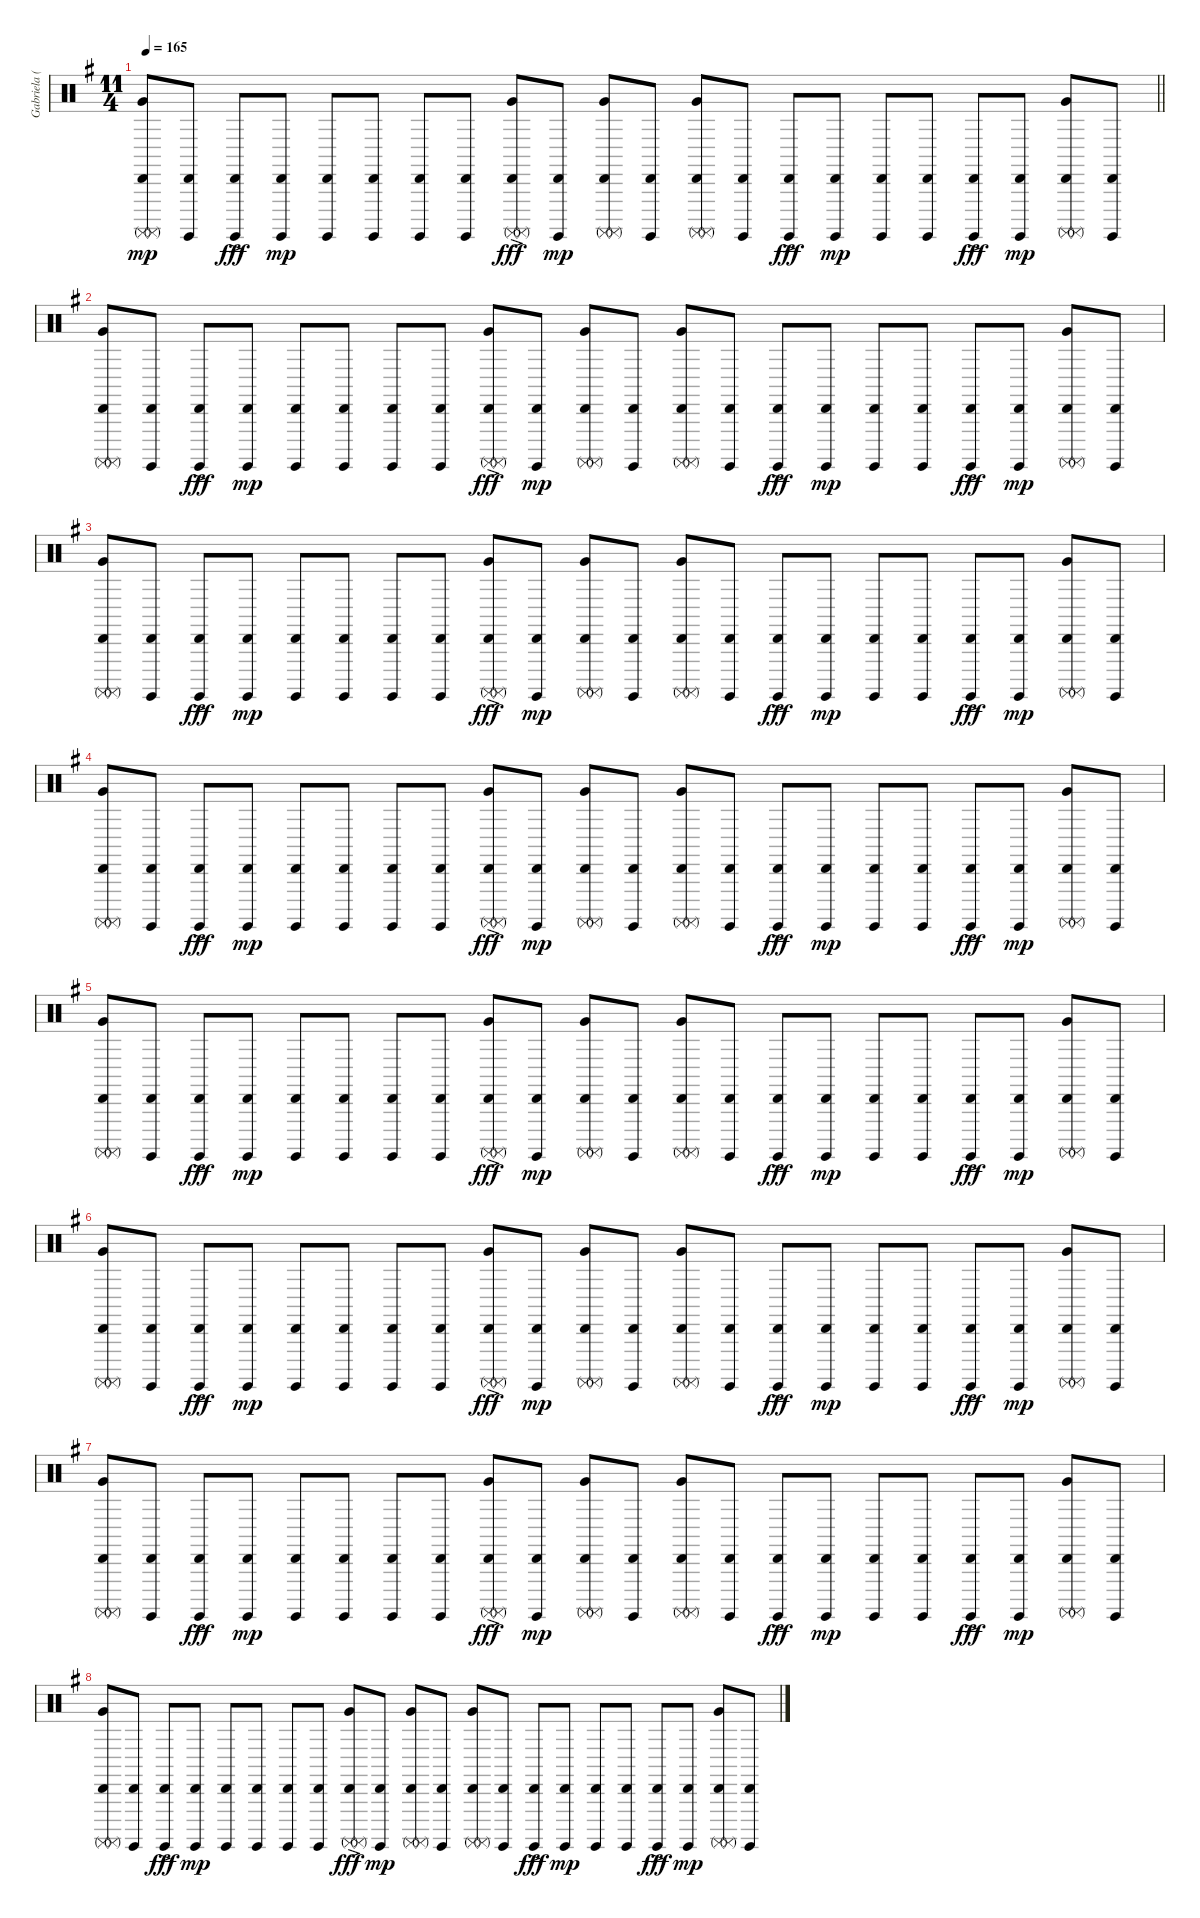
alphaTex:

\track ("Gabriela (Guitar Percussion)" "Gabriela (") {instrument percussion}
\staff {score}
\articulation defaults
\ts (11 4)
\tempo 165
\clef neutral
\barLineRight lightlight
\ks g
("Very Low Tom (hit)" "Surdo (mute)" "Surdo (mute)" "Cabasa (hit)").8{dy mp} ("Surdo (hit)" "Cabasa (hit)").8 ("Surdo (hit)" "Cabasa (hit)"{ac}).8{dy fff} ("Surdo (hit)" "Cabasa (hit)").8{dy mp} ("Surdo (hit)" "Cabasa (hit)").8 ("Surdo (hit)" "Cabasa (hit)").8 ("Surdo (hit)" "Cabasa (hit)").8 ("Surdo (hit)" "Cabasa (hit)").8 ("Very Low Tom (hit)" "Surdo (mute)" "Surdo (mute)" "Cabasa (hit)"{ac}).8{dy fff} ("Surdo (hit)" "Cabasa (hit)").8{dy mp} ("Very Low Tom (hit)" "Surdo (mute)" "Surdo (mute)" "Cabasa (hit)").8 ("Surdo (hit)" "Cabasa (hit)").8 ("Very Low Tom (hit)" "Surdo (mute)" "Surdo (mute)" "Cabasa (hit)").8 ("Surdo (hit)" "Cabasa (hit)").8 ("Surdo (hit)" "Cabasa (hit)"{ac}).8{dy fff} ("Surdo (hit)" "Cabasa (hit)").8{dy mp} ("Surdo (hit)" "Cabasa (hit)").8 ("Surdo (hit)" "Cabasa (hit)").8 ("Surdo (hit)" "Cabasa (hit)"{ac}).8{dy fff} ("Surdo (hit)" "Cabasa (hit)").8{dy mp} ("Very Low Tom (hit)" "Surdo (mute)" "Surdo (mute)" "Cabasa (hit)").8 ("Surdo (hit)" "Cabasa (hit)").8 |
("Very Low Tom (hit)" "Surdo (mute)" "Surdo (mute)" "Cabasa (hit)").8 ("Surdo (hit)" "Cabasa (hit)").8 ("Surdo (hit)" "Cabasa (hit)"{ac}).8{dy fff} ("Surdo (hit)" "Cabasa (hit)").8{dy mp} ("Surdo (hit)" "Cabasa (hit)").8 ("Surdo (hit)" "Cabasa (hit)").8 ("Surdo (hit)" "Cabasa (hit)").8 ("Surdo (hit)" "Cabasa (hit)").8 ("Very Low Tom (hit)" "Surdo (mute)" "Surdo (mute)" "Cabasa (hit)"{ac}).8{dy fff} ("Surdo (hit)" "Cabasa (hit)").8{dy mp} ("Very Low Tom (hit)" "Surdo (mute)" "Surdo (mute)" "Cabasa (hit)").8 ("Surdo (hit)" "Cabasa (hit)").8 ("Very Low Tom (hit)" "Surdo (mute)" "Surdo (mute)" "Cabasa (hit)").8 ("Surdo (hit)" "Cabasa (hit)").8 ("Surdo (hit)" "Cabasa (hit)"{ac}).8{dy fff} ("Surdo (hit)" "Cabasa (hit)").8{dy mp} ("Surdo (hit)" "Cabasa (hit)").8 ("Surdo (hit)" "Cabasa (hit)").8 ("Surdo (hit)" "Cabasa (hit)"{ac}).8{dy fff} ("Surdo (hit)" "Cabasa (hit)").8{dy mp} ("Very Low Tom (hit)" "Surdo (mute)" "Surdo (mute)" "Cabasa (hit)").8 ("Surdo (hit)" "Cabasa (hit)").8 |
("Very Low Tom (hit)" "Surdo (mute)" "Surdo (mute)" "Cabasa (hit)").8 ("Surdo (hit)" "Cabasa (hit)").8 ("Surdo (hit)" "Cabasa (hit)"{ac}).8{dy fff} ("Surdo (hit)" "Cabasa (hit)").8{dy mp} ("Surdo (hit)" "Cabasa (hit)").8 ("Surdo (hit)" "Cabasa (hit)").8 ("Surdo (hit)" "Cabasa (hit)").8 ("Surdo (hit)" "Cabasa (hit)").8 ("Very Low Tom (hit)" "Surdo (mute)" "Surdo (mute)" "Cabasa (hit)"{ac}).8{dy fff} ("Surdo (hit)" "Cabasa (hit)").8{dy mp} ("Very Low Tom (hit)" "Surdo (mute)" "Surdo (mute)" "Cabasa (hit)").8 ("Surdo (hit)" "Cabasa (hit)").8 ("Very Low Tom (hit)" "Surdo (mute)" "Surdo (mute)" "Cabasa (hit)").8 ("Surdo (hit)" "Cabasa (hit)").8 ("Surdo (hit)" "Cabasa (hit)"{ac}).8{dy fff} ("Surdo (hit)" "Cabasa (hit)").8{dy mp} ("Surdo (hit)" "Cabasa (hit)").8 ("Surdo (hit)" "Cabasa (hit)").8 ("Surdo (hit)" "Cabasa (hit)"{ac}).8{dy fff} ("Surdo (hit)" "Cabasa (hit)").8{dy mp} ("Very Low Tom (hit)" "Surdo (mute)" "Surdo (mute)" "Cabasa (hit)").8 ("Surdo (hit)" "Cabasa (hit)").8 |
("Very Low Tom (hit)" "Surdo (mute)" "Surdo (mute)" "Cabasa (hit)").8 ("Surdo (hit)" "Cabasa (hit)").8 ("Surdo (hit)" "Cabasa (hit)"{ac}).8{dy fff} ("Surdo (hit)" "Cabasa (hit)").8{dy mp} ("Surdo (hit)" "Cabasa (hit)").8 ("Surdo (hit)" "Cabasa (hit)").8 ("Surdo (hit)" "Cabasa (hit)").8 ("Surdo (hit)" "Cabasa (hit)").8 ("Very Low Tom (hit)" "Surdo (mute)" "Surdo (mute)" "Cabasa (hit)"{ac}).8{dy fff} ("Surdo (hit)" "Cabasa (hit)").8{dy mp} ("Very Low Tom (hit)" "Surdo (mute)" "Surdo (mute)" "Cabasa (hit)").8 ("Surdo (hit)" "Cabasa (hit)").8 ("Very Low Tom (hit)" "Surdo (mute)" "Surdo (mute)" "Cabasa (hit)").8 ("Surdo (hit)" "Cabasa (hit)").8 ("Surdo (hit)" "Cabasa (hit)"{ac}).8{dy fff} ("Surdo (hit)" "Cabasa (hit)").8{dy mp} ("Surdo (hit)" "Cabasa (hit)").8 ("Surdo (hit)" "Cabasa (hit)").8 ("Surdo (hit)" "Cabasa (hit)"{ac}).8{dy fff} ("Surdo (hit)" "Cabasa (hit)").8{dy mp} ("Very Low Tom (hit)" "Surdo (mute)" "Surdo (mute)" "Cabasa (hit)").8 ("Surdo (hit)" "Cabasa (hit)").8 |
("Very Low Tom (hit)" "Surdo (mute)" "Surdo (mute)" "Cabasa (hit)").8 ("Surdo (hit)" "Cabasa (hit)").8 ("Surdo (hit)" "Cabasa (hit)"{ac}).8{dy fff} ("Surdo (hit)" "Cabasa (hit)").8{dy mp} ("Surdo (hit)" "Cabasa (hit)").8 ("Surdo (hit)" "Cabasa (hit)").8 ("Surdo (hit)" "Cabasa (hit)").8 ("Surdo (hit)" "Cabasa (hit)").8 ("Very Low Tom (hit)" "Surdo (mute)" "Surdo (mute)" "Cabasa (hit)"{ac}).8{dy fff} ("Surdo (hit)" "Cabasa (hit)").8{dy mp} ("Very Low Tom (hit)" "Surdo (mute)" "Surdo (mute)" "Cabasa (hit)").8 ("Surdo (hit)" "Cabasa (hit)").8 ("Very Low Tom (hit)" "Surdo (mute)" "Surdo (mute)" "Cabasa (hit)").8 ("Surdo (hit)" "Cabasa (hit)").8 ("Surdo (hit)" "Cabasa (hit)"{ac}).8{dy fff} ("Surdo (hit)" "Cabasa (hit)").8{dy mp} ("Surdo (hit)" "Cabasa (hit)").8 ("Surdo (hit)" "Cabasa (hit)").8 ("Surdo (hit)" "Cabasa (hit)"{ac}).8{dy fff} ("Surdo (hit)" "Cabasa (hit)").8{dy mp} ("Very Low Tom (hit)" "Surdo (mute)" "Surdo (mute)" "Cabasa (hit)").8 ("Surdo (hit)" "Cabasa (hit)").8 |
("Very Low Tom (hit)" "Surdo (mute)" "Surdo (mute)" "Cabasa (hit)").8 ("Surdo (hit)" "Cabasa (hit)").8 ("Surdo (hit)" "Cabasa (hit)"{ac}).8{dy fff} ("Surdo (hit)" "Cabasa (hit)").8{dy mp} ("Surdo (hit)" "Cabasa (hit)").8 ("Surdo (hit)" "Cabasa (hit)").8 ("Surdo (hit)" "Cabasa (hit)").8 ("Surdo (hit)" "Cabasa (hit)").8 ("Very Low Tom (hit)" "Surdo (mute)" "Surdo (mute)" "Cabasa (hit)"{ac}).8{dy fff} ("Surdo (hit)" "Cabasa (hit)").8{dy mp} ("Very Low Tom (hit)" "Surdo (mute)" "Surdo (mute)" "Cabasa (hit)").8 ("Surdo (hit)" "Cabasa (hit)").8 ("Very Low Tom (hit)" "Surdo (mute)" "Surdo (mute)" "Cabasa (hit)").8 ("Surdo (hit)" "Cabasa (hit)").8 ("Surdo (hit)" "Cabasa (hit)"{ac}).8{dy fff} ("Surdo (hit)" "Cabasa (hit)").8{dy mp} ("Surdo (hit)" "Cabasa (hit)").8 ("Surdo (hit)" "Cabasa (hit)").8 ("Surdo (hit)" "Cabasa (hit)"{ac}).8{dy fff} ("Surdo (hit)" "Cabasa (hit)").8{dy mp} ("Very Low Tom (hit)" "Surdo (mute)" "Surdo (mute)" "Cabasa (hit)").8 ("Surdo (hit)" "Cabasa (hit)").8 |
("Very Low Tom (hit)" "Surdo (mute)" "Surdo (mute)" "Cabasa (hit)").8 ("Surdo (hit)" "Cabasa (hit)").8 ("Surdo (hit)" "Cabasa (hit)"{ac}).8{dy fff} ("Surdo (hit)" "Cabasa (hit)").8{dy mp} ("Surdo (hit)" "Cabasa (hit)").8 ("Surdo (hit)" "Cabasa (hit)").8 ("Surdo (hit)" "Cabasa (hit)").8 ("Surdo (hit)" "Cabasa (hit)").8 ("Very Low Tom (hit)" "Surdo (mute)" "Surdo (mute)" "Cabasa (hit)"{ac}).8{dy fff} ("Surdo (hit)" "Cabasa (hit)").8{dy mp} ("Very Low Tom (hit)" "Surdo (mute)" "Surdo (mute)" "Cabasa (hit)").8 ("Surdo (hit)" "Cabasa (hit)").8 ("Very Low Tom (hit)" "Surdo (mute)" "Surdo (mute)" "Cabasa (hit)").8 ("Surdo (hit)" "Cabasa (hit)").8 ("Surdo (hit)" "Cabasa (hit)"{ac}).8{dy fff} ("Surdo (hit)" "Cabasa (hit)").8{dy mp} ("Surdo (hit)" "Cabasa (hit)").8 ("Surdo (hit)" "Cabasa (hit)").8 ("Surdo (hit)" "Cabasa (hit)"{ac}).8{dy fff} ("Surdo (hit)" "Cabasa (hit)").8{dy mp} ("Very Low Tom (hit)" "Surdo (mute)" "Surdo (mute)" "Cabasa (hit)").8 ("Surdo (hit)" "Cabasa (hit)").8 |
("Very Low Tom (hit)" "Surdo (mute)" "Surdo (mute)" "Cabasa (hit)").8 ("Surdo (hit)" "Cabasa (hit)").8 ("Surdo (hit)" "Cabasa (hit)"{ac}).8{dy fff} ("Surdo (hit)" "Cabasa (hit)").8{dy mp} ("Surdo (hit)" "Cabasa (hit)").8 ("Surdo (hit)" "Cabasa (hit)").8 ("Surdo (hit)" "Cabasa (hit)").8 ("Surdo (hit)" "Cabasa (hit)").8 ("Very Low Tom (hit)" "Surdo (mute)" "Surdo (mute)" "Cabasa (hit)"{ac}).8{dy fff} ("Surdo (hit)" "Cabasa (hit)").8{dy mp} ("Very Low Tom (hit)" "Surdo (mute)" "Surdo (mute)" "Cabasa (hit)").8 ("Surdo (hit)" "Cabasa (hit)").8 ("Very Low Tom (hit)" "Surdo (mute)" "Surdo (mute)" "Cabasa (hit)").8 ("Surdo (hit)" "Cabasa (hit)").8 ("Surdo (hit)" "Cabasa (hit)"{ac}).8{dy fff} ("Surdo (hit)" "Cabasa (hit)").8{dy mp} ("Surdo (hit)" "Cabasa (hit)").8 ("Surdo (hit)" "Cabasa (hit)").8 ("Surdo (hit)" "Cabasa (hit)"{ac}).8{dy fff} ("Surdo (hit)" "Cabasa (hit)").8{dy mp} ("Very Low Tom (hit)" "Surdo (mute)" "Surdo (mute)" "Cabasa (hit)").8 ("Surdo (hit)" "Cabasa (hit)").8
